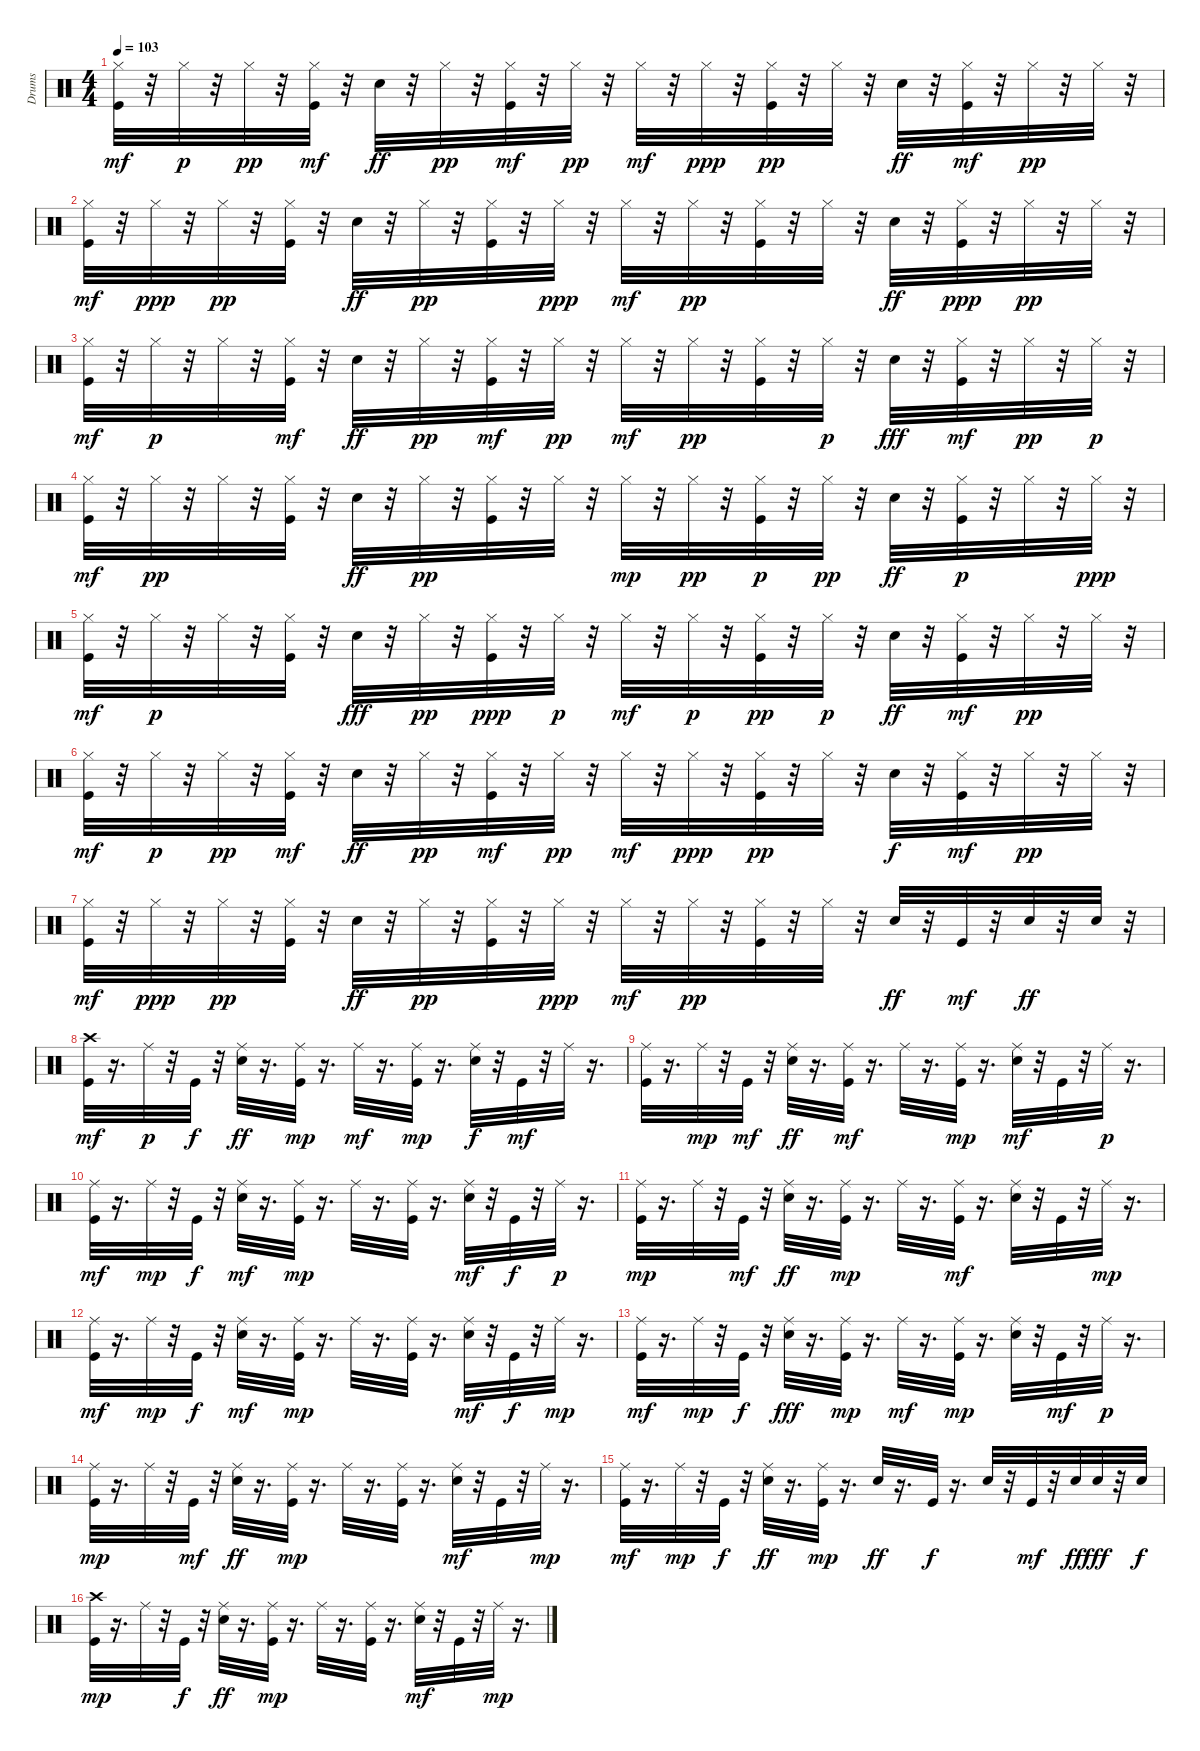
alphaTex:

\track ("Drums" "Drums") {instrument percussion}
\staff {score}
\articulation defaults
\ts (4 4)
\tempo 103
\clef neutral
\ks c
("Hi-Hat (closed)" "Kick (hit)").32{dy mf} r.32 "Hi-Hat (closed)".32{dy p} r.32 "Hi-Hat (closed)".32{dy pp} r.32 ("Hi-Hat (closed)" "Kick (hit)").32{dy mf} r.32 "Snare (hit) 2".32{dy ff} r.32 "Hi-Hat (closed)".32{dy pp} r.32 ("Hi-Hat (closed)" "Kick (hit)").32{dy mf} r.32 "Hi-Hat (closed)".32{dy pp} r.32 "Hi-Hat (closed)".32{dy mf} r.32 "Hi-Hat (closed)".32{dy ppp} r.32 ("Kick (hit)" "Hi-Hat (closed)").32{dy pp} r.32 "Hi-Hat (closed)".32 r.32 "Snare (hit) 2".32{dy ff} r.32 ("Hi-Hat (closed)" "Kick (hit)").32{dy mf} r.32 "Hi-Hat (closed)".32{dy pp} r.32 "Hi-Hat (closed)".32 r.32 |
("Hi-Hat (closed)" "Kick (hit)").32{dy mf} r.32 "Hi-Hat (closed)".32{dy ppp} r.32 "Hi-Hat (closed)".32{dy pp} r.32 ("Hi-Hat (closed)" "Kick (hit)").32 r.32 "Snare (hit) 2".32{dy ff} r.32 "Hi-Hat (closed)".32{dy pp} r.32 ("Hi-Hat (closed)" "Kick (hit)").32 r.32 "Hi-Hat (closed)".32{dy ppp} r.32 "Hi-Hat (closed)".32{dy mf} r.32 "Hi-Hat (closed)".32{dy pp} r.32 ("Hi-Hat (closed)" "Kick (hit)").32 r.32 "Hi-Hat (closed)".32 r.32 "Snare (hit) 2".32{dy ff} r.32 ("Hi-Hat (closed)" "Kick (hit)").32{dy ppp} r.32 "Hi-Hat (closed)".32{dy pp} r.32 "Hi-Hat (closed)".32 r.32 |
("Hi-Hat (closed)" "Kick (hit)").32{dy mf} r.32 "Hi-Hat (closed)".32{dy p} r.32 "Hi-Hat (closed)".32 r.32 ("Hi-Hat (closed)" "Kick (hit)").32{dy mf} r.32 "Snare (hit) 2".32{dy ff} r.32 "Hi-Hat (closed)".32{dy pp} r.32 ("Hi-Hat (closed)" "Kick (hit)").32{dy mf} r.32 "Hi-Hat (closed)".32{dy pp} r.32 "Hi-Hat (closed)".32{dy mf} r.32 "Hi-Hat (closed)".32{dy pp} r.32 ("Kick (hit)" "Hi-Hat (closed)").32 r.32 "Hi-Hat (closed)".32{dy p} r.32 "Snare (hit) 2".32{dy fff} r.32 ("Hi-Hat (closed)" "Kick (hit)").32{dy mf} r.32 "Hi-Hat (closed)".32{dy pp} r.32 "Hi-Hat (closed)".32{dy p} r.32 |
("Hi-Hat (closed)" "Kick (hit)").32{dy mf} r.32 "Hi-Hat (closed)".32{dy pp} r.32 "Hi-Hat (closed)".32 r.32 ("Hi-Hat (closed)" "Kick (hit)").32 r.32 "Snare (hit) 2".32{dy ff} r.32 "Hi-Hat (closed)".32{dy pp} r.32 ("Hi-Hat (closed)" "Kick (hit)").32 r.32 "Hi-Hat (closed)".32 r.32 "Hi-Hat (closed)".32{dy mp} r.32 "Hi-Hat (closed)".32{dy pp} r.32 ("Hi-Hat (closed)" "Kick (hit)").32{dy p} r.32 "Hi-Hat (closed)".32{dy pp} r.32 "Snare (hit) 2".32{dy ff} r.32 ("Hi-Hat (closed)" "Kick (hit)").32{dy p} r.32 "Hi-Hat (closed)".32 r.32 "Hi-Hat (closed)".32{dy ppp} r.32 |
("Kick (hit)" "Hi-Hat (closed)").32{dy mf} r.32 "Hi-Hat (closed)".32{dy p} r.32 "Hi-Hat (closed)".32 r.32 ("Kick (hit)" "Hi-Hat (closed)").32 r.32 "Snare (hit) 2".32{dy fff} r.32 "Hi-Hat (closed)".32{dy pp} r.32 ("Hi-Hat (closed)" "Kick (hit)").32{dy ppp} r.32 "Hi-Hat (closed)".32{dy p} r.32 "Hi-Hat (closed)".32{dy mf} r.32 "Hi-Hat (closed)".32{dy p} r.32 ("Kick (hit)" "Hi-Hat (closed)").32{dy pp} r.32 "Hi-Hat (closed)".32{dy p} r.32 "Snare (hit) 2".32{dy ff} r.32 ("Hi-Hat (closed)" "Kick (hit)").32{dy mf} r.32 "Hi-Hat (closed)".32{dy pp} r.32 "Hi-Hat (closed)".32 r.32 |
("Hi-Hat (closed)" "Kick (hit)").32{dy mf} r.32 "Hi-Hat (closed)".32{dy p} r.32 "Hi-Hat (closed)".32{dy pp} r.32 ("Hi-Hat (closed)" "Kick (hit)").32{dy mf} r.32 "Snare (hit) 2".32{dy ff} r.32 "Hi-Hat (closed)".32{dy pp} r.32 ("Hi-Hat (closed)" "Kick (hit)").32{dy mf} r.32 "Hi-Hat (closed)".32{dy pp} r.32 "Hi-Hat (closed)".32{dy mf} r.32 "Hi-Hat (closed)".32{dy ppp} r.32 ("Kick (hit)" "Hi-Hat (closed)").32{dy pp} r.32 "Hi-Hat (closed)".32 r.32 "Snare (hit) 2".32{dy f} r.32 ("Hi-Hat (closed)" "Kick (hit)").32{dy mf} r.32 "Hi-Hat (closed)".32{dy pp} r.32 "Hi-Hat (closed)".32 r.32 |
("Hi-Hat (closed)" "Kick (hit)").32{dy mf} r.32 "Hi-Hat (closed)".32{dy ppp} r.32 "Hi-Hat (closed)".32{dy pp} r.32 ("Kick (hit)" "Hi-Hat (closed)").32 r.32 "Snare (hit) 2".32{dy ff} r.32 "Hi-Hat (closed)".32{dy pp} r.32 ("Hi-Hat (closed)" "Kick (hit)").32 r.32 "Hi-Hat (closed)".32{dy ppp} r.32 "Hi-Hat (closed)".32{dy mf} r.32 "Hi-Hat (closed)".32{dy pp} r.32 ("Hi-Hat (closed)" "Kick (hit)").32 r.32 "Hi-Hat (closed)".32 r.32 "Snare (hit) 2".32{dy ff} r.32 "Kick (hit)".32{dy mf} r.32 "Snare (hit) 2".32{dy ff} r.32 "Snare (hit) 2".32 r.32 |
("Kick (hit)" "Crash high (hit)").32{dy mf} r.16{d} "Ride (middle)".32{dy p} r.32 "Kick (hit)".32{dy f} r.32 ("Ride (middle)" "Snare (hit) 2").32{dy ff} r.16{d} ("Kick (hit)" "Ride (middle)").32{dy mp} r.16{d} "Ride (middle)".32{dy mf} r.16{d} ("Kick (hit)" "Ride (middle)").32{dy mp} r.16{d} ("Snare (hit) 2" "Ride (middle)").32{dy f} r.32 "Kick (hit)".32{dy mf} r.32 "Ride (middle)".32 r.16{d} |
("Ride (middle)" "Kick (hit)").32 r.16{d} "Ride (middle)".32{dy mp} r.32 "Kick (hit)".32{dy mf} r.32 ("Snare (hit) 2" "Ride (middle)").32{dy ff} r.16{d} ("Kick (hit)" "Ride (middle)").32{dy mf} r.16{d} "Ride (middle)".32 r.16{d} ("Kick (hit)" "Ride (middle)").32{dy mp} r.16{d} ("Snare (hit) 2" "Ride (middle)").32{dy mf} r.32 "Kick (hit)".32 r.32 "Ride (middle)".32{dy p} r.16{d} |
("Ride (middle)" "Kick (hit)").32{dy mf} r.16{d} "Ride (middle)".32{dy mp} r.32 "Kick (hit)".32{dy f} r.32 ("Snare (hit) 2" "Ride (middle)").32{dy mf} r.16{d} ("Ride (middle)" "Kick (hit)").32{dy mp} r.16{d} "Ride (middle)".32 r.16{d} ("Kick (hit)" "Ride (middle)").32 r.16{d} ("Snare (hit) 2" "Ride (middle)").32{dy mf} r.32 "Kick (hit)".32{dy f} r.32 "Ride (middle)".32{dy p} r.16{d} |
("Kick (hit)" "Ride (middle)").32{dy mp} r.16{d} "Ride (middle)".32 r.32 "Kick (hit)".32{dy mf} r.32 ("Ride (middle)" "Snare (hit) 2").32{dy ff} r.16{d} ("Kick (hit)" "Ride (middle)").32{dy mp} r.16{d} "Ride (middle)".32 r.16{d} ("Kick (hit)" "Ride (middle)").32{dy mf} r.16{d} ("Snare (hit) 2" "Ride (middle)").32 r.32 "Kick (hit)".32 r.32 "Ride (middle)".32{dy mp} r.16{d} |
("Kick (hit)" "Ride (middle)").32{dy mf} r.16{d} "Ride (middle)".32{dy mp} r.32 "Kick (hit)".32{dy f} r.32 ("Snare (hit) 2" "Ride (middle)").32{dy mf} r.16{d} ("Ride (middle)" "Kick (hit)").32{dy mp} r.16{d} "Ride (middle)".32 r.16{d} ("Ride (middle)" "Kick (hit)").32 r.16{d} ("Snare (hit) 2" "Ride (middle)").32{dy mf} r.32 "Kick (hit)".32{dy f} r.32 "Ride (middle)".32{dy mp} r.16{d} |
("Kick (hit)" "Ride (middle)").32{dy mf} r.16{d} "Ride (middle)".32{dy mp} r.32 "Kick (hit)".32{dy f} r.32 ("Ride (middle)" "Snare (hit) 2").32{dy fff} r.16{d} ("Kick (hit)" "Ride (middle)").32{dy mp} r.16{d} "Ride (middle)".32{dy mf} r.16{d} ("Kick (hit)" "Ride (middle)").32{dy mp} r.16{d} ("Snare (hit) 2" "Ride (middle)").32 r.32 "Kick (hit)".32{dy mf} r.32 "Ride (middle)".32{dy p} r.16{d} |
("Kick (hit)" "Ride (middle)").32{dy mp} r.16{d} "Ride (middle)".32 r.32 "Kick (hit)".32{dy mf} r.32 ("Ride (middle)" "Snare (hit) 2").32{dy ff} r.16{d} ("Kick (hit)" "Ride (middle)").32{dy mp} r.16{d} "Ride (middle)".32 r.16{d} ("Kick (hit)" "Ride (middle)").32 r.16{d} ("Snare (hit) 2" "Ride (middle)").32{dy mf} r.32 "Kick (hit)".32 r.32 "Ride (middle)".32{dy mp} r.16{d} |
("Ride (middle)" "Kick (hit)").32{dy mf} r.16{d} "Ride (middle)".32{dy mp} r.32 "Kick (hit)".32{dy f} r.32 ("Ride (middle)" "Snare (hit) 2").32{dy ff} r.16{d} ("Ride (middle)" "Kick (hit)").32{dy mp} r.16{d} "Snare (hit) 2".32{dy ff} r.16{d} "Kick (hit)".32{dy f} r.16{d} "Snare (hit) 2".32 r.32 "Kick (hit)".32{dy mf} r.32 "Snare (hit) 2".32{dy ff} "Snare (hit) 2".32{dy fff} r.32 "Snare (hit) 2".32{dy f} |
("Kick (hit)" "Crash high (hit)").32{dy mp} r.16{d} "Ride (middle)".32 r.32 "Kick (hit)".32{dy f} r.32 ("Ride (middle)" "Snare (hit) 2").32{dy ff} r.16{d} ("Ride (middle)" "Kick (hit)").32{dy mp} r.16{d} "Ride (middle)".32 r.16{d} ("Kick (hit)" "Ride (middle)").32 r.16{d} ("Snare (hit) 2" "Ride (middle)").32{dy mf} r.32 "Kick (hit)".32 r.32 "Ride (middle)".32{dy mp} r.16{d}
